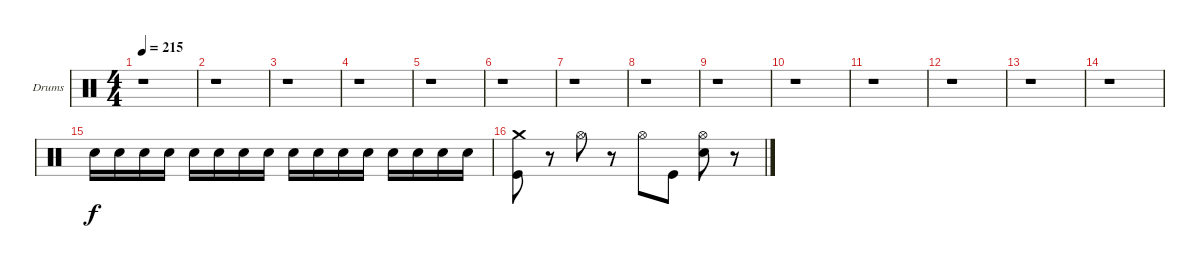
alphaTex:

\bracketExtendMode groupsimilarinstruments
\firstSystemTrackNameOrientation horizontal
\otherSystemsTrackNameOrientation horizontal
\track ("Drumkit (Christoph)" "Drums") {instrument percussion}
\staff {score}
\articulation defaults
\ts (4 4)
\tempo 215
\clef neutral
\ks c
r.1{dy f} |
r.1 |
r.1 |
r.1 |
r.1 |
r.1 |
r.1 |
r.1 |
r.1 |
r.1 |
r.1 |
r.1 |
r.1 |
r.1 |
"Snare (hit) 2".16 "Snare (hit) 2".16 "Snare (hit) 2".16 "Snare (hit) 2".16 "Snare (hit) 2".16 "Snare (hit) 2".16 "Snare (hit) 2".16 "Snare (hit) 2".16 "Snare (hit) 2".16 "Snare (hit) 2".16 "Snare (hit) 2".16 "Snare (hit) 2".16 "Snare (hit) 2".16 "Snare (hit) 2".16 "Snare (hit) 2".16 "Snare (hit) 2".16 |
("Crash medium (hit)" "Kick (hit)").8 r.8 "Hi-Hat (open)".8 r.8 "Hi-Hat (open)".8 "Kick (hit)".8 ("Hi-Hat (open)" "Snare (hit) 2").8 r.8
